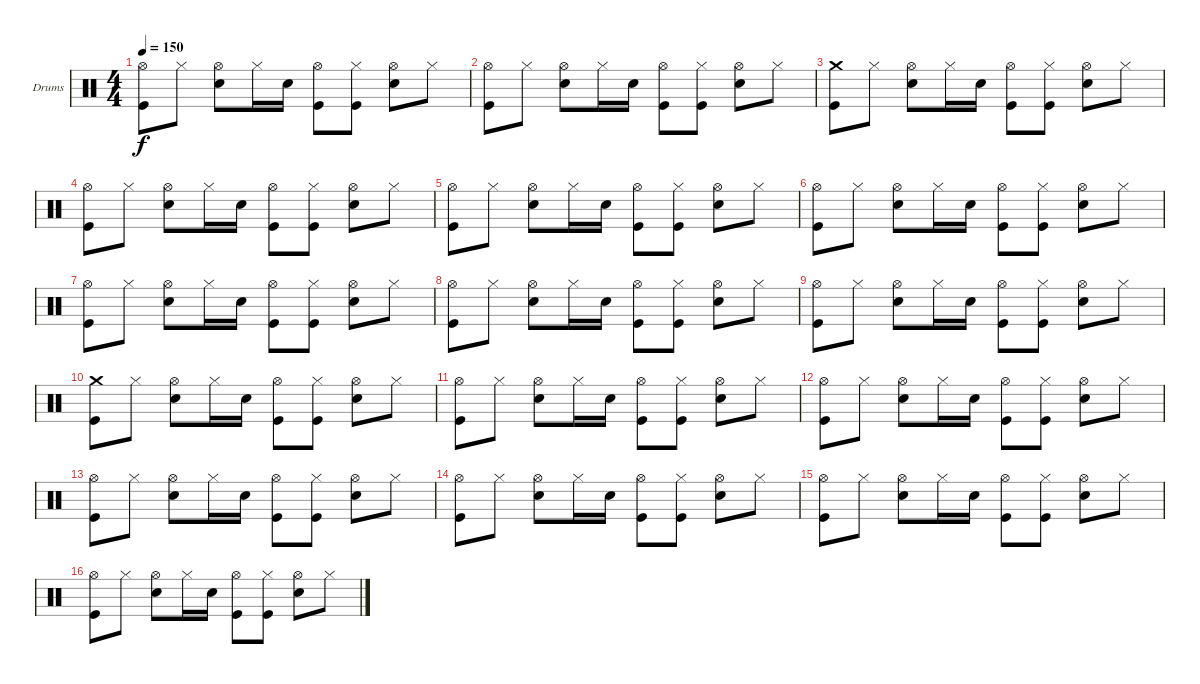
\bracketExtendMode groupsimilarinstruments
\firstSystemTrackNameOrientation horizontal
\otherSystemsTrackNameOrientation horizontal
\track ("Drumkit" "Drums") {instrument percussion}
\staff {score}
\articulation defaults
\ts (4 4)
\tempo 150
\clef neutral
\ks c
("Hi-Hat (open)" "Kick (hit)").8{dy f} "Hi-Hat (closed)".8 ("Hi-Hat (open)" "Snare (hit) 2").8 "Hi-Hat (closed)".16 "Snare (hit) 2".16 ("Hi-Hat (open)" "Kick (hit)").8 ("Hi-Hat (closed)" "Kick (hit)").8 ("Hi-Hat (open)" "Snare (hit) 2").8 "Hi-Hat (closed)".8 |
("Hi-Hat (open)" "Kick (hit)").8 "Hi-Hat (closed)".8 ("Hi-Hat (open)" "Snare (hit) 2").8 "Hi-Hat (closed)".16 "Snare (hit) 2".16 ("Hi-Hat (open)" "Kick (hit)").8 ("Hi-Hat (closed)" "Kick (hit)").8 ("Hi-Hat (open)" "Snare (hit) 2").8 "Hi-Hat (closed)".8 |
("Crash medium (hit)" "Kick (hit)").8 "Hi-Hat (closed)".8 ("Hi-Hat (open)" "Snare (hit) 2").8 "Hi-Hat (closed)".16 "Snare (hit) 2".16 ("Hi-Hat (open)" "Kick (hit)").8 ("Hi-Hat (closed)" "Kick (hit)").8 ("Hi-Hat (open)" "Snare (hit) 2").8 "Hi-Hat (closed)".8 |
("Hi-Hat (open)" "Kick (hit)").8 "Hi-Hat (closed)".8 ("Hi-Hat (open)" "Snare (hit) 2").8 "Hi-Hat (closed)".16 "Snare (hit) 2".16 ("Hi-Hat (open)" "Kick (hit)").8 ("Hi-Hat (closed)" "Kick (hit)").8 ("Hi-Hat (open)" "Snare (hit) 2").8 "Hi-Hat (closed)".8 |
("Hi-Hat (open)" "Kick (hit)").8 "Hi-Hat (closed)".8 ("Hi-Hat (open)" "Snare (hit) 2").8 "Hi-Hat (closed)".16 "Snare (hit) 2".16 ("Hi-Hat (open)" "Kick (hit)").8 ("Hi-Hat (closed)" "Kick (hit)").8 ("Hi-Hat (open)" "Snare (hit) 2").8 "Hi-Hat (closed)".8 |
("Hi-Hat (open)" "Kick (hit)").8 "Hi-Hat (closed)".8 ("Hi-Hat (open)" "Snare (hit) 2").8 "Hi-Hat (closed)".16 "Snare (hit) 2".16 ("Hi-Hat (open)" "Kick (hit)").8 ("Hi-Hat (closed)" "Kick (hit)").8 ("Hi-Hat (open)" "Snare (hit) 2").8 "Hi-Hat (closed)".8 |
("Hi-Hat (open)" "Kick (hit)").8 "Hi-Hat (closed)".8 ("Hi-Hat (open)" "Snare (hit) 2").8 "Hi-Hat (closed)".16 "Snare (hit) 2".16 ("Hi-Hat (open)" "Kick (hit)").8 ("Hi-Hat (closed)" "Kick (hit)").8 ("Hi-Hat (open)" "Snare (hit) 2").8 "Hi-Hat (closed)".8 |
("Hi-Hat (open)" "Kick (hit)").8 "Hi-Hat (closed)".8 ("Hi-Hat (open)" "Snare (hit) 2").8 "Hi-Hat (closed)".16 "Snare (hit) 2".16 ("Hi-Hat (open)" "Kick (hit)").8 ("Hi-Hat (closed)" "Kick (hit)").8 ("Hi-Hat (open)" "Snare (hit) 2").8 "Hi-Hat (closed)".8 |
("Hi-Hat (open)" "Kick (hit)").8 "Hi-Hat (closed)".8 ("Hi-Hat (open)" "Snare (hit) 2").8 "Hi-Hat (closed)".16 "Snare (hit) 2".16 ("Hi-Hat (open)" "Kick (hit)").8 ("Hi-Hat (closed)" "Kick (hit)").8 ("Hi-Hat (open)" "Snare (hit) 2").8 "Hi-Hat (closed)".8 |
("Crash medium (hit)" "Kick (hit)").8 "Hi-Hat (closed)".8 ("Hi-Hat (open)" "Snare (hit) 2").8 "Hi-Hat (closed)".16 "Snare (hit) 2".16 ("Hi-Hat (open)" "Kick (hit)").8 ("Hi-Hat (closed)" "Kick (hit)").8 ("Hi-Hat (open)" "Snare (hit) 2").8 "Hi-Hat (closed)".8 |
("Hi-Hat (open)" "Kick (hit)").8 "Hi-Hat (closed)".8 ("Hi-Hat (open)" "Snare (hit) 2").8 "Hi-Hat (closed)".16 "Snare (hit) 2".16 ("Hi-Hat (open)" "Kick (hit)").8 ("Hi-Hat (closed)" "Kick (hit)").8 ("Hi-Hat (open)" "Snare (hit) 2").8 "Hi-Hat (closed)".8 |
("Hi-Hat (open)" "Kick (hit)").8 "Hi-Hat (closed)".8 ("Hi-Hat (open)" "Snare (hit) 2").8 "Hi-Hat (closed)".16 "Snare (hit) 2".16 ("Hi-Hat (open)" "Kick (hit)").8 ("Hi-Hat (closed)" "Kick (hit)").8 ("Hi-Hat (open)" "Snare (hit) 2").8 "Hi-Hat (closed)".8 |
("Hi-Hat (open)" "Kick (hit)").8 "Hi-Hat (closed)".8 ("Hi-Hat (open)" "Snare (hit) 2").8 "Hi-Hat (closed)".16 "Snare (hit) 2".16 ("Hi-Hat (open)" "Kick (hit)").8 ("Hi-Hat (closed)" "Kick (hit)").8 ("Hi-Hat (open)" "Snare (hit) 2").8 "Hi-Hat (closed)".8 |
("Hi-Hat (open)" "Kick (hit)").8 "Hi-Hat (closed)".8 ("Hi-Hat (open)" "Snare (hit) 2").8 "Hi-Hat (closed)".16 "Snare (hit) 2".16 ("Hi-Hat (open)" "Kick (hit)").8 ("Hi-Hat (closed)" "Kick (hit)").8 ("Hi-Hat (open)" "Snare (hit) 2").8 "Hi-Hat (closed)".8 |
("Hi-Hat (open)" "Kick (hit)").8 "Hi-Hat (closed)".8 ("Hi-Hat (open)" "Snare (hit) 2").8 "Hi-Hat (closed)".16 "Snare (hit) 2".16 ("Hi-Hat (open)" "Kick (hit)").8 ("Hi-Hat (closed)" "Kick (hit)").8 ("Hi-Hat (open)" "Snare (hit) 2").8 "Hi-Hat (closed)".8 |
("Hi-Hat (open)" "Kick (hit)").8 "Hi-Hat (closed)".8 ("Hi-Hat (open)" "Snare (hit) 2").8 "Hi-Hat (closed)".16 "Snare (hit) 2".16 ("Hi-Hat (open)" "Kick (hit)").8 ("Hi-Hat (closed)" "Kick (hit)").8 ("Hi-Hat (open)" "Snare (hit) 2").8 "Hi-Hat (closed)".8
